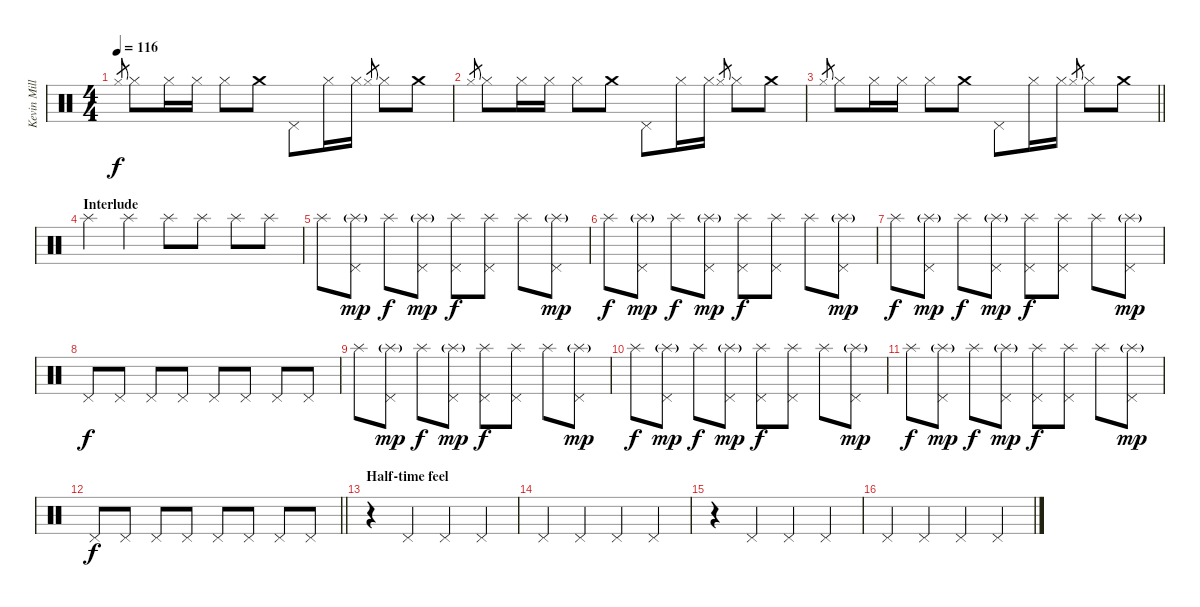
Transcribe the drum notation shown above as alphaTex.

\track ("Kevin Miller (Drums)" "Kevin Mill") {instrument percussion}
\staff {score}
\articulation defaults
\ts (4 4)
\tempo 116
\clef neutral
\ks c "Hi-Hat (closed)".8{gr dy f} "Hi-Hat (closed)".8 "Hi-Hat (closed)".16 "Hi-Hat (closed)".16 "Hi-Hat (closed)".8 "Crash medium (hit)".8 "Pedal Hi-Hat (hit)".8 "Hi-Hat (closed)".16 "Hi-Hat (closed)".16 "Hi-Hat (closed)".8{gr} "Hi-Hat (closed)".8 "Crash medium (hit)".8
|
"Hi-Hat (closed)".8{gr} "Hi-Hat (closed)".8 "Hi-Hat (closed)".16 "Hi-Hat (closed)".16 "Hi-Hat (closed)".8 "Crash medium (hit)".8 "Pedal Hi-Hat (hit)".8 "Hi-Hat (closed)".16 "Hi-Hat (closed)".16 "Hi-Hat (closed)".8{gr} "Hi-Hat (closed)".8 "Crash medium (hit)".8 |
\barLineRight lightlight "Hi-Hat (closed)".8{gr} "Hi-Hat (closed)".8 "Hi-Hat (closed)".16 "Hi-Hat (closed)".16 "Hi-Hat (closed)".8 "Crash medium (hit)".8 "Pedal Hi-Hat (hit)".8 "Hi-Hat (closed)".16 "Hi-Hat (closed)".16 "Hi-Hat (closed)".8{gr} "Hi-Hat (closed)".8 "Crash medium (hit)".8
|
\section ("" "Interlude")
"Splash (hit)".4 "Splash (hit)".4 "Splash (hit)".8 "Splash (hit)".8 "Splash (hit)".8 "Splash (hit)".8 |
"Splash (hit)".8 ("Splash (hit)"{g} "Pedal Hi-Hat (hit)").8{dy mp} "Splash (hit)".8{dy f} ("Splash (hit)"{g} "Pedal Hi-Hat (hit)").8{dy mp} ("Splash (hit)" "Pedal Hi-Hat (hit)").8{dy f} ("Splash (hit)" "Pedal Hi-Hat (hit)").8 "Splash (hit)".8 ("Splash (hit)"{g} "Pedal Hi-Hat (hit)").8{dy mp} |
"Splash (hit)".8{dy f} ("Splash (hit)"{g} "Pedal Hi-Hat (hit)").8{dy mp} "Splash (hit)".8{dy f} ("Splash (hit)"{g} "Pedal Hi-Hat (hit)").8{dy mp} ("Splash (hit)" "Pedal Hi-Hat (hit)").8{dy f} ("Splash (hit)" "Pedal Hi-Hat (hit)").8 "Splash (hit)".8 ("Splash (hit)"{g} "Pedal Hi-Hat (hit)").8{dy mp} |
"Splash (hit)".8{dy f} ("Splash (hit)"{g} "Pedal Hi-Hat (hit)").8{dy mp} "Splash (hit)".8{dy f} ("Splash (hit)"{g} "Pedal Hi-Hat (hit)").8{dy mp} ("Splash (hit)" "Pedal Hi-Hat (hit)").8{dy f} ("Splash (hit)" "Pedal Hi-Hat (hit)").8 "Splash (hit)".8 ("Splash (hit)"{g} "Pedal Hi-Hat (hit)").8{dy mp} |
"Pedal Hi-Hat (hit)".8{dy f} "Pedal Hi-Hat (hit)".8 "Pedal Hi-Hat (hit)".8 "Pedal Hi-Hat (hit)".8 "Pedal Hi-Hat (hit)".8 "Pedal Hi-Hat (hit)".8 "Pedal Hi-Hat (hit)".8 "Pedal Hi-Hat (hit)".8 |
"Splash (hit)".8 ("Splash (hit)"{g} "Pedal Hi-Hat (hit)").8{dy mp} "Splash (hit)".8{dy f} ("Splash (hit)"{g} "Pedal Hi-Hat (hit)").8{dy mp} ("Splash (hit)" "Pedal Hi-Hat (hit)").8{dy f} ("Splash (hit)" "Pedal Hi-Hat (hit)").8 "Splash (hit)".8 ("Splash (hit)"{g} "Pedal Hi-Hat (hit)").8{dy mp} |
"Splash (hit)".8{dy f} ("Splash (hit)"{g} "Pedal Hi-Hat (hit)").8{dy mp} "Splash (hit)".8{dy f} ("Splash (hit)"{g} "Pedal Hi-Hat (hit)").8{dy mp} ("Splash (hit)" "Pedal Hi-Hat (hit)").8{dy f} ("Splash (hit)" "Pedal Hi-Hat (hit)").8 "Splash (hit)".8 ("Splash (hit)"{g} "Pedal Hi-Hat (hit)").8{dy mp} |
"Splash (hit)".8{dy f} ("Splash (hit)"{g} "Pedal Hi-Hat (hit)").8{dy mp} "Splash (hit)".8{dy f} ("Splash (hit)"{g} "Pedal Hi-Hat (hit)").8{dy mp} ("Splash (hit)" "Pedal Hi-Hat (hit)").8{dy f} ("Splash (hit)" "Pedal Hi-Hat (hit)").8 "Splash (hit)".8 ("Splash (hit)"{g} "Pedal Hi-Hat (hit)").8{dy mp} |
\barLineRight lightlight "Pedal Hi-Hat (hit)".8{dy f} "Pedal Hi-Hat (hit)".8 "Pedal Hi-Hat (hit)".8 "Pedal Hi-Hat (hit)".8 "Pedal Hi-Hat (hit)".8 "Pedal Hi-Hat (hit)".8 "Pedal Hi-Hat (hit)".8 "Pedal Hi-Hat (hit)".8
|
\section ("" "Half-time feel")
r.4 "Pedal Hi-Hat (hit)".4 "Pedal Hi-Hat (hit)".4 "Pedal Hi-Hat (hit)".4 |
"Pedal Hi-Hat (hit)".4 "Pedal Hi-Hat (hit)".4 "Pedal Hi-Hat (hit)".4 "Pedal Hi-Hat (hit)".4 |
r.4 "Pedal Hi-Hat (hit)".4 "Pedal Hi-Hat (hit)".4 "Pedal Hi-Hat (hit)".4 |
"Pedal Hi-Hat (hit)".4 "Pedal Hi-Hat (hit)".4 "Pedal Hi-Hat (hit)".4 "Pedal Hi-Hat (hit)".4
